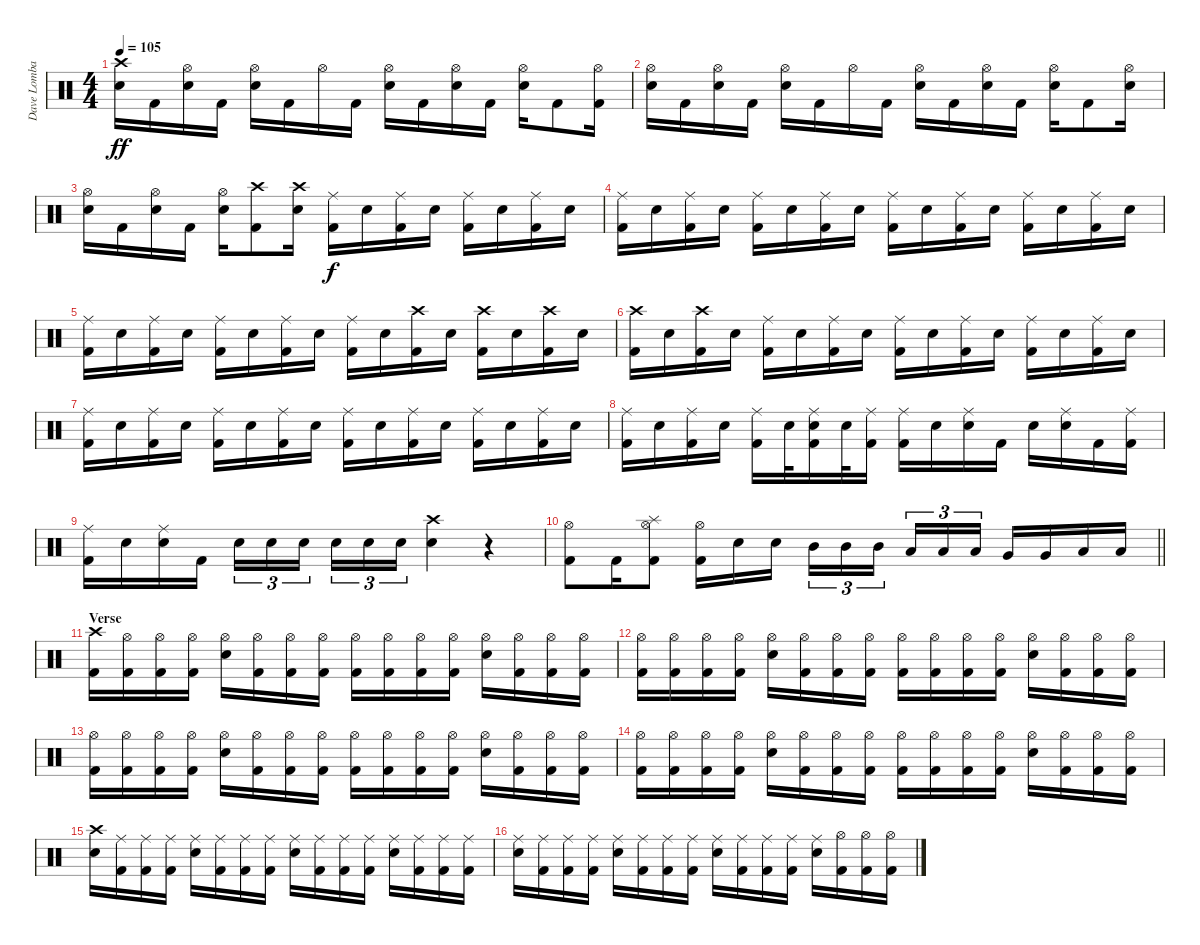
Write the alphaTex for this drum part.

\track ("Dave Lombardo" "Dave Lomba") {instrument percussion}
\staff {score}
\articulation defaults
\ts (4 4)
\tempo 105
\clef neutral
\ks c
("Crash high (hit)" "Snare (hit) 2").16{dy ff} "Kick (hit) 2".16 ("Hi-Hat (open)" "Snare (hit) 2").16 "Kick (hit) 2".16 ("Hi-Hat (open)" "Snare (hit) 2").16 "Kick (hit) 2".16 "Hi-Hat (open)".16 "Kick (hit) 2".16 ("Hi-Hat (open)" "Snare (hit) 2").16 "Kick (hit) 2".16 ("Hi-Hat (open)" "Snare (hit) 2").16 "Kick (hit) 2".16 ("Hi-Hat (open)" "Snare (hit) 2").16 "Kick (hit) 2".8 ("Hi-Hat (open)" "Kick (hit) 2").16 |
("Hi-Hat (open)" "Snare (hit) 2").16 "Kick (hit) 2".16 ("Hi-Hat (open)" "Snare (hit) 2").16 "Kick (hit) 2".16 ("Hi-Hat (open)" "Snare (hit) 2").16 "Kick (hit) 2".16 "Hi-Hat (open)".16 "Kick (hit) 2".16 ("Hi-Hat (open)" "Snare (hit) 2").16 "Kick (hit) 2".16 ("Hi-Hat (open)" "Snare (hit) 2").16 "Kick (hit) 2".16 ("Hi-Hat (open)" "Snare (hit) 2").16 "Kick (hit) 2".8 ("Hi-Hat (open)" "Snare (hit) 2").16 |
("Hi-Hat (open)" "Snare (hit) 2").16 "Kick (hit) 2".16 ("Hi-Hat (open)" "Snare (hit) 2").16 "Kick (hit) 2".16 ("Hi-Hat (open)" "Snare (hit) 2").16 ("Crash high (hit)" "Kick (hit) 2").8 ("Crash high (hit)" "Snare (hit) 2").16 ("Ride (middle)" "Kick (hit) 2").16{dy f} "Snare (hit) 2".16 ("Ride (middle)" "Kick (hit) 2").16 "Snare (hit) 2".16 ("Ride (middle)" "Kick (hit) 2").16 "Snare (hit) 2".16 ("Ride (middle)" "Kick (hit) 2").16 "Snare (hit) 2".16 |
("Ride (middle)" "Kick (hit) 2").16 "Snare (hit) 2".16 ("Ride (middle)" "Kick (hit) 2").16 "Snare (hit) 2".16 ("Ride (middle)" "Kick (hit) 2").16 "Snare (hit) 2".16 ("Ride (middle)" "Kick (hit) 2").16 "Snare (hit) 2".16 ("Ride (middle)" "Kick (hit) 2").16 "Snare (hit) 2".16 ("Ride (middle)" "Kick (hit) 2").16 "Snare (hit) 2".16 ("Ride (middle)" "Kick (hit) 2").16 "Snare (hit) 2".16 ("Ride (middle)" "Kick (hit) 2").16 "Snare (hit) 2".16 |
("Ride (middle)" "Kick (hit) 2").16 "Snare (hit) 2".16 ("Ride (middle)" "Kick (hit) 2").16 "Snare (hit) 2".16 ("Ride (middle)" "Kick (hit) 2").16 "Snare (hit) 2".16 ("Ride (middle)" "Kick (hit) 2").16 "Snare (hit) 2".16 ("Ride (middle)" "Kick (hit) 2").16 "Snare (hit) 2".16 ("Crash high (hit)" "Kick (hit) 2").16 "Snare (hit) 2".16 ("Crash high (hit)" "Kick (hit) 2").16 "Snare (hit) 2".16 ("Crash high (hit)" "Kick (hit) 2").16 "Snare (hit) 2".16 |
("Crash high (hit)" "Kick (hit) 2").16 "Snare (hit) 2".16 ("Crash high (hit)" "Kick (hit) 2").16 "Snare (hit) 2".16 ("Ride (middle)" "Kick (hit) 2").16 "Snare (hit) 2".16 ("Ride (middle)" "Kick (hit) 2").16 "Snare (hit) 2".16 ("Ride (middle)" "Kick (hit) 2").16 "Snare (hit) 2".16 ("Ride (middle)" "Kick (hit) 2").16 "Snare (hit) 2".16 ("Ride (middle)" "Kick (hit) 2").16 "Snare (hit) 2".16 ("Ride (middle)" "Kick (hit) 2").16 "Snare (hit) 2".16 |
("Ride (middle)" "Kick (hit) 2").16 "Snare (hit) 2".16 ("Ride (middle)" "Kick (hit) 2").16 "Snare (hit) 2".16 ("Ride (middle)" "Kick (hit) 2").16 "Snare (hit) 2".16 ("Ride (middle)" "Kick (hit) 2").16 "Snare (hit) 2".16 ("Ride (middle)" "Kick (hit) 2").16 "Snare (hit) 2".16 ("Ride (middle)" "Kick (hit) 2").16 "Snare (hit) 2".16 ("Ride (middle)" "Kick (hit) 2").16 "Snare (hit) 2".16 ("Ride (middle)" "Kick (hit) 2").16 "Snare (hit) 2".16 |
("Ride (middle)" "Kick (hit) 2").16 "Snare (hit) 2".16 ("Ride (middle)" "Kick (hit) 2").16 "Snare (hit) 2".16 ("Ride (middle)" "Kick (hit) 2").16 "Snare (hit) 2".32 ("Ride (middle)" "Snare (hit) 2" "Kick (hit) 2").16 "Snare (hit) 2".32 ("Ride (middle)" "Kick (hit) 2").16 ("Ride (middle)" "Kick (hit) 2").16 "Snare (hit) 2".16 ("Ride (middle)" "Snare (hit) 2").16 "Kick (hit) 2".16 "Snare (hit) 2".16 ("Ride (middle)" "Snare (hit) 2").16 "Kick (hit) 2".16 ("Ride (middle)" "Kick (hit) 2").16 |
("Ride (middle)" "Kick (hit) 2").16 "Snare (hit) 2".16 ("Ride (middle)" "Snare (hit) 2").16 "Kick (hit) 2".16 "Snare (hit) 2".16{tu (3 2)} "Snare (hit) 2".16{tu (3 2)} "Snare (hit) 2".16{tu (3 2) beam splitsecondary} "Snare (hit) 2".16{tu (3 2)} "Snare (hit) 2".16{tu (3 2)} "Snare (hit) 2".16{tu (3 2)} ("Crash high (hit)" "Snare (hit) 2").4 r.4 |
\barLineRight lightlight
("Hi-Hat (open)" "Kick (hit) 2").8 "Kick (hit) 2".16 ("Hi-Hat (open)" "Splash (hit)" "Kick (hit) 2").8 ("Hi-Hat (open)" "Kick (hit) 2").16 "Electric Snare (hit)".16 "Electric Snare (hit)".16 "Mid Tom (hit)".16{tu (3 2)} "Mid Tom (hit)".16{tu (3 2)} "Mid Tom (hit)".16{tu (3 2) beam splitsecondary} "Low Tom (hit)".16{tu (3 2)} "Low Tom (hit)".16{tu (3 2)} "Low Tom (hit)".16{tu (3 2)} "Very Low Tom (hit)".16 "Very Low Tom (hit)".16 "Low Floor Tom (hit)".16 "Low Floor Tom (hit)".16 |
\section ("" "Verse")
("Crash high (hit)" "Kick (hit) 2").16 ("Hi-Hat (open)" "Kick (hit) 2").16 ("Hi-Hat (open)" "Kick (hit) 2").16 ("Hi-Hat (open)" "Kick (hit) 2").16 ("Hi-Hat (open)" "Snare (hit) 2").16 ("Hi-Hat (open)" "Kick (hit) 2").16 ("Hi-Hat (open)" "Kick (hit) 2").16 ("Hi-Hat (open)" "Kick (hit) 2").16 ("Hi-Hat (open)" "Kick (hit) 2").16 ("Hi-Hat (open)" "Kick (hit) 2").16 ("Hi-Hat (open)" "Kick (hit) 2").16 ("Hi-Hat (open)" "Kick (hit) 2").16 ("Hi-Hat (open)" "Snare (hit) 2").16 ("Hi-Hat (open)" "Kick (hit) 2").16 ("Hi-Hat (open)" "Kick (hit) 2").16 ("Hi-Hat (open)" "Kick (hit) 2").16 |
("Hi-Hat (open)" "Kick (hit) 2").16 ("Hi-Hat (open)" "Kick (hit) 2").16 ("Hi-Hat (open)" "Kick (hit) 2").16 ("Hi-Hat (open)" "Kick (hit) 2").16 ("Hi-Hat (open)" "Snare (hit) 2").16 ("Hi-Hat (open)" "Kick (hit) 2").16 ("Hi-Hat (open)" "Kick (hit) 2").16 ("Hi-Hat (open)" "Kick (hit) 2").16 ("Hi-Hat (open)" "Kick (hit) 2").16 ("Hi-Hat (open)" "Kick (hit) 2").16 ("Hi-Hat (open)" "Kick (hit) 2").16 ("Hi-Hat (open)" "Kick (hit) 2").16 ("Hi-Hat (open)" "Snare (hit) 2").16 ("Hi-Hat (open)" "Kick (hit) 2").16 ("Hi-Hat (open)" "Kick (hit) 2").16 ("Hi-Hat (open)" "Kick (hit) 2").16 |
("Hi-Hat (open)" "Kick (hit) 2").16 ("Hi-Hat (open)" "Kick (hit) 2").16 ("Hi-Hat (open)" "Kick (hit) 2").16 ("Hi-Hat (open)" "Kick (hit) 2").16 ("Hi-Hat (open)" "Snare (hit) 2").16 ("Hi-Hat (open)" "Kick (hit) 2").16 ("Hi-Hat (open)" "Kick (hit) 2").16 ("Hi-Hat (open)" "Kick (hit) 2").16 ("Hi-Hat (open)" "Kick (hit) 2").16 ("Hi-Hat (open)" "Kick (hit) 2").16 ("Hi-Hat (open)" "Kick (hit) 2").16 ("Hi-Hat (open)" "Kick (hit) 2").16 ("Hi-Hat (open)" "Snare (hit) 2").16 ("Hi-Hat (open)" "Kick (hit) 2").16 ("Hi-Hat (open)" "Kick (hit) 2").16 ("Hi-Hat (open)" "Kick (hit) 2").16 |
("Hi-Hat (open)" "Kick (hit) 2").16 ("Hi-Hat (open)" "Kick (hit) 2").16 ("Hi-Hat (open)" "Kick (hit) 2").16 ("Hi-Hat (open)" "Kick (hit) 2").16 ("Hi-Hat (open)" "Snare (hit) 2").16 ("Hi-Hat (open)" "Kick (hit) 2").16 ("Hi-Hat (open)" "Kick (hit) 2").16 ("Hi-Hat (open)" "Kick (hit) 2").16 ("Hi-Hat (open)" "Kick (hit) 2").16 ("Hi-Hat (open)" "Kick (hit) 2").16 ("Hi-Hat (open)" "Kick (hit) 2").16 ("Hi-Hat (open)" "Kick (hit) 2").16 ("Hi-Hat (open)" "Snare (hit) 2").16 ("Hi-Hat (open)" "Kick (hit) 2").16 ("Hi-Hat (open)" "Kick (hit) 2").16 ("Hi-Hat (open)" "Kick (hit) 2").16 |
("Crash high (hit)" "Snare (hit) 2").16 ("Ride (middle)" "Kick (hit) 2").16 ("Ride (middle)" "Kick (hit) 2").16 ("Ride (middle)" "Kick (hit) 2").16 ("Ride (middle)" "Snare (hit) 2").16 ("Ride (middle)" "Kick (hit) 2").16 ("Ride (middle)" "Kick (hit) 2").16 ("Ride (middle)" "Kick (hit) 2").16 ("Ride (middle)" "Snare (hit) 2").16 ("Ride (middle)" "Kick (hit) 2").16 ("Ride (middle)" "Kick (hit) 2").16 ("Ride (middle)" "Kick (hit) 2").16 ("Ride (middle)" "Snare (hit) 2").16 ("Ride (middle)" "Kick (hit) 2").16 ("Ride (middle)" "Kick (hit) 2").16 ("Ride (middle)" "Kick (hit) 2").16 |
("Ride (middle)" "Snare (hit) 2").16 ("Ride (middle)" "Kick (hit) 2").16 ("Ride (middle)" "Kick (hit) 2").16 ("Ride (middle)" "Kick (hit) 2").16 ("Ride (middle)" "Snare (hit) 2").16 ("Ride (middle)" "Kick (hit) 2").16 ("Ride (middle)" "Kick (hit) 2").16 ("Ride (middle)" "Kick (hit) 2").16 ("Ride (middle)" "Snare (hit) 2").16 ("Ride (middle)" "Kick (hit) 2").16 ("Ride (middle)" "Kick (hit) 2").16 ("Ride (middle)" "Kick (hit) 2").16 ("Ride (middle)" "Snare (hit) 2").16 ("Hi-Hat (open)" "Kick (hit) 2").16 ("Hi-Hat (open)" "Kick (hit) 2").16 ("Hi-Hat (open)" "Kick (hit) 2").16
